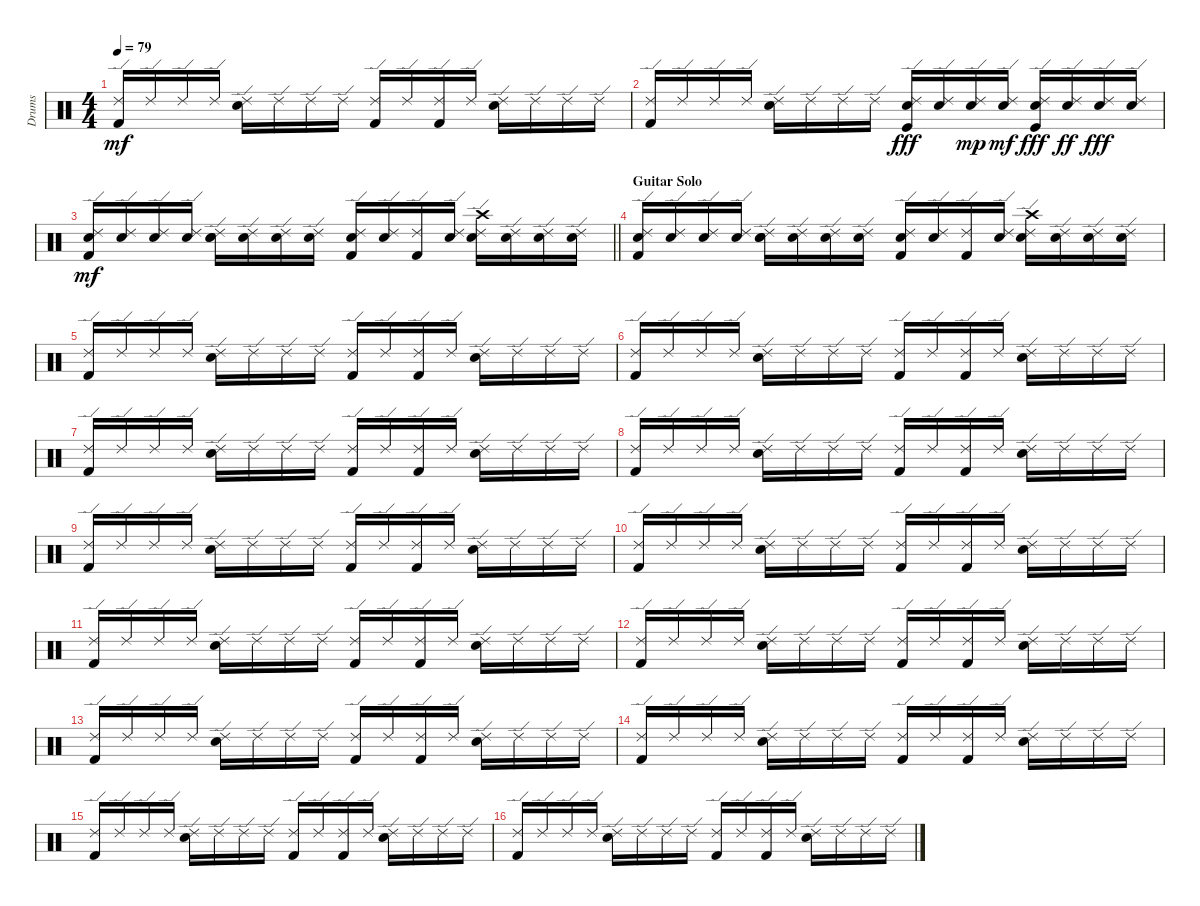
\track ("Drums" "Drums") {instrument percussion}
\staff {score}
\articulation defaults
\ts (4 4)
\tempo 79
\clef neutral
\ks c
("Kick (hit) 2" "Ride (edge) 2").16{dy mf} "Ride (edge) 2".16 "Ride (edge) 2".16 "Ride (edge) 2".16 ("Electric Snare (hit)" "Ride (edge) 2").16 "Ride (edge) 2".16 "Ride (edge) 2".16 "Ride (edge) 2".16 ("Kick (hit) 2" "Ride (edge) 2").16 "Ride (edge) 2".16 ("Kick (hit) 2" "Ride (edge) 2").16 "Ride (edge) 2".16 ("Electric Snare (hit)" "Ride (edge) 2").16 "Ride (edge) 2".16 "Ride (edge) 2".16 "Ride (edge) 2".16 |
("Kick (hit) 2" "Ride (edge) 2").16 "Ride (edge) 2".16 "Ride (edge) 2".16 "Ride (edge) 2".16 ("Electric Snare (hit)" "Ride (edge) 2").16 "Ride (edge) 2".16 "Ride (edge) 2".16 "Ride (edge) 2".16 ("Electric Snare (hit)" "Ride (edge) 2" "Kick (hit)").16{dy fff} ("Electric Snare (hit)" "Ride (edge) 2").16 ("Electric Snare (hit)" "Ride (edge) 2").16{dy mp} ("Electric Snare (hit)" "Ride (edge) 2").16{dy mf} ("Electric Snare (hit)" "Ride (edge) 2" "Kick (hit)").16{dy fff} ("Electric Snare (hit)" "Ride (edge) 2").16{dy ff} ("Electric Snare (hit)" "Ride (edge) 2").16{dy fff} ("Electric Snare (hit)" "Ride (edge) 2").16 |
\barLineRight lightlight
("Kick (hit) 2" "Ride (edge) 2" "Electric Snare (hit)").16{dy mf} ("Snare (hit) 2" "Ride (edge) 2").16 ("Snare (hit) 2" "Ride (edge) 2").16 ("Snare (hit) 2" "Ride (edge) 2").16 ("Electric Snare (hit)" "Ride (edge) 2" "Electric Snare (hit)").16 ("Snare (hit) 2" "Ride (edge) 2").16 ("Snare (hit) 2" "Ride (edge) 2").16 ("Snare (hit) 2" "Ride (edge) 2").16 ("Kick (hit) 2" "Ride (edge) 2" "Electric Snare (hit)").16 ("Snare (hit) 2" "Ride (edge) 2").16 ("Kick (hit) 2" "Ride (edge) 2").16 ("Snare (hit) 2" "Ride (edge) 2").16 ("Electric Snare (hit)" "Ride (edge) 2" "Crash high (hit)").16 ("Snare (hit) 2" "Ride (edge) 2").16 ("Snare (hit) 2" "Ride (edge) 2").16 ("Snare (hit) 2" "Ride (edge) 2").16 |
\section ("" "Guitar Solo")
("Kick (hit) 2" "Ride (edge) 2" "Electric Snare (hit)").16 ("Snare (hit) 2" "Ride (edge) 2").16 ("Snare (hit) 2" "Ride (edge) 2").16 ("Snare (hit) 2" "Ride (edge) 2").16 ("Electric Snare (hit)" "Ride (edge) 2" "Electric Snare (hit)").16 ("Snare (hit) 2" "Ride (edge) 2").16 ("Snare (hit) 2" "Ride (edge) 2").16 ("Snare (hit) 2" "Ride (edge) 2").16 ("Kick (hit) 2" "Ride (edge) 2" "Electric Snare (hit)").16 ("Snare (hit) 2" "Ride (edge) 2").16 ("Kick (hit) 2" "Ride (edge) 2").16 ("Snare (hit) 2" "Ride (edge) 2").16 ("Electric Snare (hit)" "Ride (edge) 2" "Crash high (hit)").16 ("Snare (hit) 2" "Ride (edge) 2").16 ("Snare (hit) 2" "Ride (edge) 2").16 ("Snare (hit) 2" "Ride (edge) 2").16 |
("Kick (hit) 2" "Ride (edge) 2").16 "Ride (edge) 2".16 "Ride (edge) 2".16 "Ride (edge) 2".16 ("Electric Snare (hit)" "Ride (edge) 2").16 "Ride (edge) 2".16 "Ride (edge) 2".16 "Ride (edge) 2".16 ("Kick (hit) 2" "Ride (edge) 2").16 "Ride (edge) 2".16 ("Kick (hit) 2" "Ride (edge) 2").16 "Ride (edge) 2".16 ("Electric Snare (hit)" "Ride (edge) 2").16 "Ride (edge) 2".16 "Ride (edge) 2".16 "Ride (edge) 2".16 |
("Kick (hit) 2" "Ride (edge) 2").16 "Ride (edge) 2".16 "Ride (edge) 2".16 "Ride (edge) 2".16 ("Electric Snare (hit)" "Ride (edge) 2").16 "Ride (edge) 2".16 "Ride (edge) 2".16 "Ride (edge) 2".16 ("Kick (hit) 2" "Ride (edge) 2").16 "Ride (edge) 2".16 ("Kick (hit) 2" "Ride (edge) 2").16 "Ride (edge) 2".16 ("Electric Snare (hit)" "Ride (edge) 2").16 "Ride (edge) 2".16 "Ride (edge) 2".16 "Ride (edge) 2".16 |
("Kick (hit) 2" "Ride (edge) 2").16 "Ride (edge) 2".16 "Ride (edge) 2".16 "Ride (edge) 2".16 ("Electric Snare (hit)" "Ride (edge) 2").16 "Ride (edge) 2".16 "Ride (edge) 2".16 "Ride (edge) 2".16 ("Kick (hit) 2" "Ride (edge) 2").16 "Ride (edge) 2".16 ("Kick (hit) 2" "Ride (edge) 2").16 "Ride (edge) 2".16 ("Electric Snare (hit)" "Ride (edge) 2").16 "Ride (edge) 2".16 "Ride (edge) 2".16 "Ride (edge) 2".16 |
("Kick (hit) 2" "Ride (edge) 2").16 "Ride (edge) 2".16 "Ride (edge) 2".16 "Ride (edge) 2".16 ("Electric Snare (hit)" "Ride (edge) 2").16 "Ride (edge) 2".16 "Ride (edge) 2".16 "Ride (edge) 2".16 ("Kick (hit) 2" "Ride (edge) 2").16 "Ride (edge) 2".16 ("Kick (hit) 2" "Ride (edge) 2").16 "Ride (edge) 2".16 ("Electric Snare (hit)" "Ride (edge) 2").16 "Ride (edge) 2".16 "Ride (edge) 2".16 "Ride (edge) 2".16 |
("Kick (hit) 2" "Ride (edge) 2").16 "Ride (edge) 2".16 "Ride (edge) 2".16 "Ride (edge) 2".16 ("Electric Snare (hit)" "Ride (edge) 2").16 "Ride (edge) 2".16 "Ride (edge) 2".16 "Ride (edge) 2".16 ("Kick (hit) 2" "Ride (edge) 2").16 "Ride (edge) 2".16 ("Kick (hit) 2" "Ride (edge) 2").16 "Ride (edge) 2".16 ("Electric Snare (hit)" "Ride (edge) 2").16 "Ride (edge) 2".16 "Ride (edge) 2".16 "Ride (edge) 2".16 |
("Kick (hit) 2" "Ride (edge) 2").16 "Ride (edge) 2".16 "Ride (edge) 2".16 "Ride (edge) 2".16 ("Electric Snare (hit)" "Ride (edge) 2").16 "Ride (edge) 2".16 "Ride (edge) 2".16 "Ride (edge) 2".16 ("Kick (hit) 2" "Ride (edge) 2").16 "Ride (edge) 2".16 ("Kick (hit) 2" "Ride (edge) 2").16 "Ride (edge) 2".16 ("Electric Snare (hit)" "Ride (edge) 2").16 "Ride (edge) 2".16 "Ride (edge) 2".16 "Ride (edge) 2".16 |
("Kick (hit) 2" "Ride (edge) 2").16 "Ride (edge) 2".16 "Ride (edge) 2".16 "Ride (edge) 2".16 ("Electric Snare (hit)" "Ride (edge) 2").16 "Ride (edge) 2".16 "Ride (edge) 2".16 "Ride (edge) 2".16 ("Kick (hit) 2" "Ride (edge) 2").16 "Ride (edge) 2".16 ("Kick (hit) 2" "Ride (edge) 2").16 "Ride (edge) 2".16 ("Electric Snare (hit)" "Ride (edge) 2").16 "Ride (edge) 2".16 "Ride (edge) 2".16 "Ride (edge) 2".16 |
("Kick (hit) 2" "Ride (edge) 2").16 "Ride (edge) 2".16 "Ride (edge) 2".16 "Ride (edge) 2".16 ("Electric Snare (hit)" "Ride (edge) 2").16 "Ride (edge) 2".16 "Ride (edge) 2".16 "Ride (edge) 2".16 ("Kick (hit) 2" "Ride (edge) 2").16 "Ride (edge) 2".16 ("Kick (hit) 2" "Ride (edge) 2").16 "Ride (edge) 2".16 ("Electric Snare (hit)" "Ride (edge) 2").16 "Ride (edge) 2".16 "Ride (edge) 2".16 "Ride (edge) 2".16 |
("Kick (hit) 2" "Ride (edge) 2").16 "Ride (edge) 2".16 "Ride (edge) 2".16 "Ride (edge) 2".16 ("Electric Snare (hit)" "Ride (edge) 2").16 "Ride (edge) 2".16 "Ride (edge) 2".16 "Ride (edge) 2".16 ("Kick (hit) 2" "Ride (edge) 2").16 "Ride (edge) 2".16 ("Kick (hit) 2" "Ride (edge) 2").16 "Ride (edge) 2".16 ("Electric Snare (hit)" "Ride (edge) 2").16 "Ride (edge) 2".16 "Ride (edge) 2".16 "Ride (edge) 2".16 |
("Kick (hit) 2" "Ride (edge) 2").16 "Ride (edge) 2".16 "Ride (edge) 2".16 "Ride (edge) 2".16 ("Electric Snare (hit)" "Ride (edge) 2").16 "Ride (edge) 2".16 "Ride (edge) 2".16 "Ride (edge) 2".16 ("Kick (hit) 2" "Ride (edge) 2").16 "Ride (edge) 2".16 ("Kick (hit) 2" "Ride (edge) 2").16 "Ride (edge) 2".16 ("Electric Snare (hit)" "Ride (edge) 2").16 "Ride (edge) 2".16 "Ride (edge) 2".16 "Ride (edge) 2".16 |
("Kick (hit) 2" "Ride (edge) 2").16 "Ride (edge) 2".16 "Ride (edge) 2".16 "Ride (edge) 2".16 ("Electric Snare (hit)" "Ride (edge) 2").16 "Ride (edge) 2".16 "Ride (edge) 2".16 "Ride (edge) 2".16 ("Kick (hit) 2" "Ride (edge) 2").16 "Ride (edge) 2".16 ("Kick (hit) 2" "Ride (edge) 2").16 "Ride (edge) 2".16 ("Electric Snare (hit)" "Ride (edge) 2").16 "Ride (edge) 2".16 "Ride (edge) 2".16 "Ride (edge) 2".16 |
("Kick (hit) 2" "Ride (edge) 2").16 "Ride (edge) 2".16 "Ride (edge) 2".16 "Ride (edge) 2".16 ("Electric Snare (hit)" "Ride (edge) 2").16 "Ride (edge) 2".16 "Ride (edge) 2".16 "Ride (edge) 2".16 ("Kick (hit) 2" "Ride (edge) 2").16 "Ride (edge) 2".16 ("Kick (hit) 2" "Ride (edge) 2").16 "Ride (edge) 2".16 ("Electric Snare (hit)" "Ride (edge) 2").16 "Ride (edge) 2".16 "Ride (edge) 2".16 "Ride (edge) 2".16
